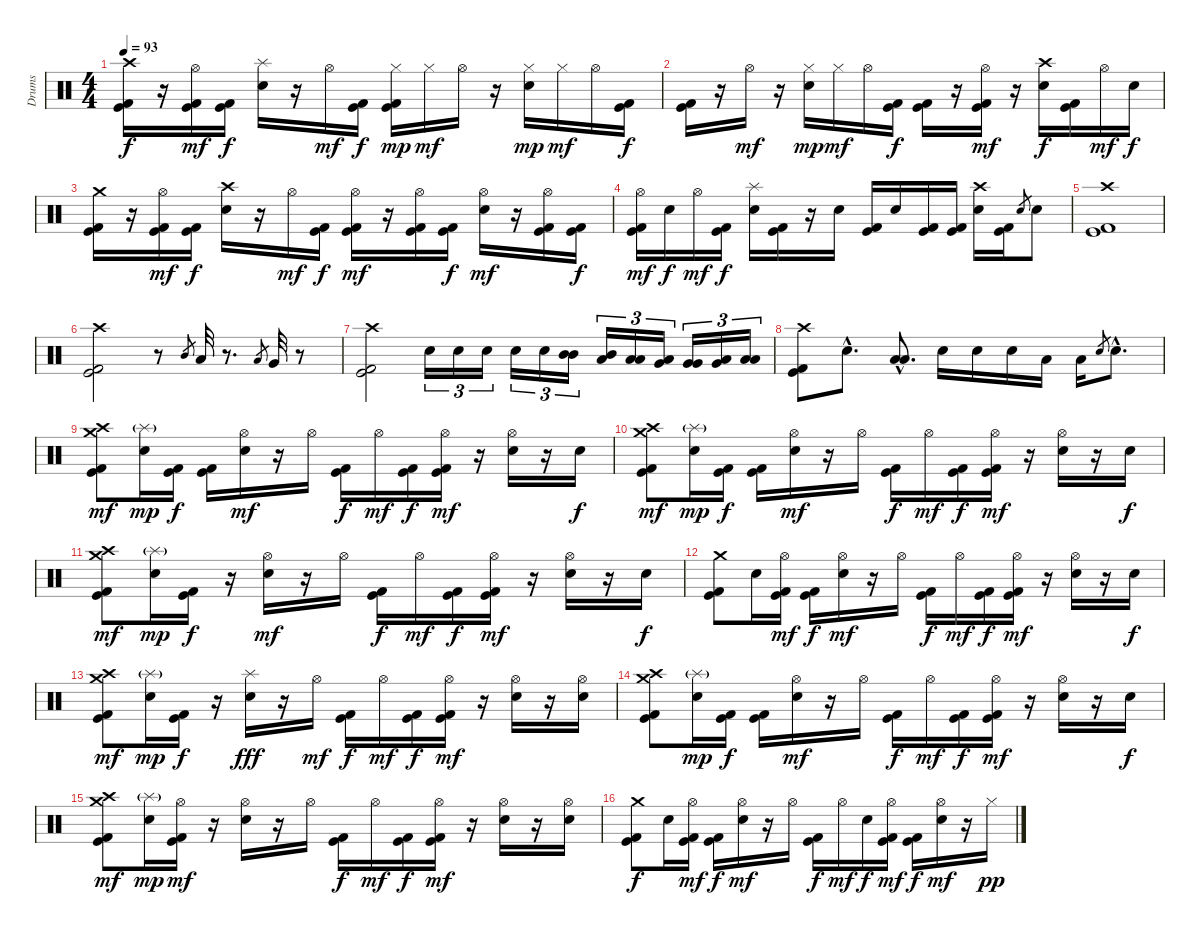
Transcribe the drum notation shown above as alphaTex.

\track ("Drums" "Drums") {instrument percussion}
\staff {score}
\articulation defaults
\ts (4 4)
\tempo 93
\clef neutral
\ks c
("Crash high (hit)" "Kick (hit)" "Kick (hit) 2").16{dy f} r.16 ("Hi-Hat (open)" "Kick (hit)" "Kick (hit) 2").16{dy mf} ("Kick (hit)" "Kick (hit) 2").16{dy f} ("Splash (hit)" "Electric Snare (hit)").16 r.16 "Hi-Hat (open)".16{dy mf} ("Kick (hit)" "Kick (hit) 2").16{dy f} ("Hi-Hat (closed)" "Kick (hit)" "Kick (hit) 2").16{dy mp} "Hi-Hat (closed)".16{dy mf} "Hi-Hat (open)".16 r.16 ("Hi-Hat (closed)" "Electric Snare (hit)").16{dy mp} "Hi-Hat (closed)".16{dy mf} "Hi-Hat (open)".16 ("Kick (hit)" "Kick (hit) 2").16{dy f} |
("Kick (hit)" "Kick (hit) 2").16 r.16 "Hi-Hat (open)".16{dy mf} r.16 ("Hi-Hat (closed)" "Electric Snare (hit)").16{dy mp} "Hi-Hat (closed)".16{dy mf} "Hi-Hat (open)".16 ("Kick (hit)" "Kick (hit) 2").16{dy f} ("Kick (hit)" "Kick (hit) 2").16 r.16 ("Hi-Hat (open)" "Kick (hit)" "Kick (hit) 2").16{dy mf} r.16 ("Crash high (hit)" "Electric Snare (hit)").16{dy f} ("Kick (hit)" "Kick (hit) 2").16 "Hi-Hat (open)".16{dy mf} "Electric Snare (hit)".16{dy f} |
("Crash medium (hit)" "Kick (hit)" "Kick (hit) 2").16 r.16 ("Hi-Hat (open)" "Kick (hit)" "Kick (hit) 2").16{dy mf} ("Kick (hit)" "Kick (hit) 2").16{dy f} ("Crash high (hit)" "Electric Snare (hit)").16 r.16 "Hi-Hat (open)".16{dy mf} ("Kick (hit)" "Kick (hit) 2").16{dy f} ("Hi-Hat (open)" "Kick (hit)" "Kick (hit) 2").16{dy mf} r.16 ("Hi-Hat (open)" "Kick (hit)" "Kick (hit) 2").16 ("Kick (hit)" "Kick (hit) 2").16{dy f} ("Hi-Hat (open)" "Electric Snare (hit)").16{dy mf} r.16 ("Hi-Hat (open)" "Kick (hit)" "Kick (hit) 2").16 ("Kick (hit)" "Kick (hit) 2").16{dy f} |
("Hi-Hat (open)" "Kick (hit)" "Kick (hit) 2").16{dy mf} "Electric Snare (hit)".16{dy f} "Hi-Hat (open)".16{dy mf} ("Kick (hit)" "Kick (hit) 2").16{dy f} ("Splash (hit)" "Electric Snare (hit)").16 ("Kick (hit)" "Kick (hit) 2").16 r.16 "Electric Snare (hit)".16 ("Kick (hit)" "Kick (hit) 2").16 "Electric Snare (hit)".16 ("Kick (hit)" "Kick (hit) 2").16 ("Kick (hit)" "Kick (hit) 2").16 ("Crash high (hit)" "Electric Snare (hit)").16 ("Kick (hit)" "Kick (hit) 2").16 "Electric Snare (hit)".8{gr} "Electric Snare (hit)".8 |
("Crash high (hit)" "Kick (hit)" "Kick (hit) 2").1 |
("Crash high (hit)" "Kick (hit)" "Kick (hit) 2").2 r.8 "Mid Tom (hit)".8{gr} "Low Tom (hit)".32 r.8{d} "Low Tom (hit)".8{gr} "Very Low Tom (hit)".32 r.8 |
("Crash high (hit)" "Kick (hit)" "Kick (hit) 2").2 "Electric Snare (hit)".16{tu (3 2)} "Electric Snare (hit)".16{tu (3 2)} "Electric Snare (hit)".16{tu (3 2)} "Electric Snare (hit)".16{tu (3 2)} "Electric Snare (hit)".16{tu (3 2)} ("Mid Tom (hit)" "Mid Tom (hit)").16{tu (3 2)} ("Mid Tom (hit)" "Low Tom (hit)").16{tu (3 2)} ("Low Tom (hit)" "Low Tom (hit)").16{tu (3 2)} ("Low Tom (hit)" "Very Low Tom (hit)").16{tu (3 2)} ("Very Low Tom (hit)" "Very Low Tom (hit)").16{tu (3 2)} ("Very Low Tom (hit)" "Low Floor Tom (hit)").16{tu (3 2)} ("Low Floor Tom (hit)" "Low Floor Tom (hit)").16{tu (3 2)} |
("Crash high (hit)" "Kick (hit)" "Kick (hit) 2").8 "Electric Snare (hit)"{hac}.8{d} ("Low Tom (hit)"{hac} "Low Tom (hit)"{hac}).8{d} "Electric Snare (hit)".16 "Electric Snare (hit)".16 "Electric Snare (hit)".16 "Low Tom (hit)".16 "Low Tom (hit)".16 "Electric Snare (hit)".8{gr} "Electric Snare (hit)"{hac}.8{d} |
("Crash medium (hit)" "Crash high (hit)" "Kick (hit)" "Kick (hit) 2").8{dy mf} ("Splash (hit)"{g} "Electric Snare (hit)").16{dy mp} ("Kick (hit)" "Kick (hit) 2").16{dy f} ("Kick (hit)" "Kick (hit) 2").16 ("Hi-Hat (open)" "Electric Snare (hit)").16{dy mf} r.16 "Hi-Hat (open)".16 ("Kick (hit)" "Kick (hit) 2").16{dy f} "Hi-Hat (open)".16{dy mf} ("Kick (hit)" "Kick (hit) 2").16{dy f} ("Hi-Hat (open)" "Kick (hit)" "Kick (hit) 2").16{dy mf} r.16 ("Hi-Hat (open)" "Electric Snare (hit)").16 r.16 "Electric Snare (hit)".16{dy f} |
("Crash medium (hit)" "Crash high (hit)" "Kick (hit)" "Kick (hit) 2").8{dy mf} ("Splash (hit)"{g} "Electric Snare (hit)").16{dy mp} ("Kick (hit)" "Kick (hit) 2").16{dy f} ("Kick (hit)" "Kick (hit) 2").16 ("Hi-Hat (open)" "Electric Snare (hit)").16{dy mf} r.16 "Hi-Hat (open)".16 ("Kick (hit)" "Kick (hit) 2").16{dy f} "Hi-Hat (open)".16{dy mf} ("Kick (hit)" "Kick (hit) 2").16{dy f} ("Hi-Hat (open)" "Kick (hit)" "Kick (hit) 2").16{dy mf} r.16 ("Hi-Hat (open)" "Electric Snare (hit)").16 r.16 "Electric Snare (hit)".16{dy f} |
("Crash medium (hit)" "Crash high (hit)" "Kick (hit)" "Kick (hit) 2").8{dy mf} ("Splash (hit)"{g} "Electric Snare (hit)").16{dy mp} ("Kick (hit)" "Kick (hit) 2").16{dy f} r.16 ("Hi-Hat (open)" "Electric Snare (hit)").16{dy mf} r.16 "Hi-Hat (open)".16 ("Kick (hit)" "Kick (hit) 2").16{dy f} "Hi-Hat (open)".16{dy mf} ("Kick (hit)" "Kick (hit) 2").16{dy f} ("Hi-Hat (open)" "Kick (hit)" "Kick (hit) 2").16{dy mf} r.16 ("Hi-Hat (open)" "Electric Snare (hit)").16 r.16 "Electric Snare (hit)".16{dy f} |
("Crash medium (hit)" "Kick (hit)" "Kick (hit) 2").8 "Electric Snare (hit)".16 ("Hi-Hat (open)" "Kick (hit)" "Kick (hit) 2").16{dy mf} ("Kick (hit)" "Kick (hit) 2").16{dy f} ("Hi-Hat (open)" "Electric Snare (hit)").16{dy mf} r.16 "Hi-Hat (open)".16 ("Kick (hit)" "Kick (hit) 2").16{dy f} "Hi-Hat (open)".16{dy mf} ("Kick (hit)" "Kick (hit) 2").16{dy f} ("Hi-Hat (open)" "Kick (hit)" "Kick (hit) 2").16{dy mf} r.16 ("Hi-Hat (open)" "Electric Snare (hit)").16 r.16 "Electric Snare (hit)".16{dy f} |
("Crash medium (hit)" "Crash high (hit)" "Kick (hit)" "Kick (hit) 2").8{dy mf} ("Splash (hit)"{g} "Electric Snare (hit)").16{dy mp} ("Kick (hit)" "Kick (hit) 2").16{dy f} r.16 ("Splash (hit)" "Electric Snare (hit)").16{dy fff} r.16 "Hi-Hat (open)".16{dy mf} ("Kick (hit)" "Kick (hit) 2").16{dy f} "Hi-Hat (open)".16{dy mf} ("Kick (hit)" "Kick (hit) 2").16{dy f} ("Hi-Hat (open)" "Kick (hit)" "Kick (hit) 2").16{dy mf} r.16 ("Hi-Hat (open)" "Electric Snare (hit)").16 r.16 ("Hi-Hat (open)" "Electric Snare (hit)").16 |
("Crash medium (hit)" "Crash high (hit)" "Kick (hit)" "Kick (hit) 2").8 ("Splash (hit)"{g} "Electric Snare (hit)").16{dy mp} ("Kick (hit)" "Kick (hit) 2").16{dy f} ("Kick (hit)" "Kick (hit) 2").16 ("Hi-Hat (open)" "Electric Snare (hit)").16{dy mf} r.16 "Hi-Hat (open)".16 ("Kick (hit)" "Kick (hit) 2").16{dy f} "Hi-Hat (open)".16{dy mf} ("Kick (hit)" "Kick (hit) 2").16{dy f} ("Hi-Hat (open)" "Kick (hit)" "Kick (hit) 2").16{dy mf} r.16 ("Hi-Hat (open)" "Electric Snare (hit)").16 r.16 "Electric Snare (hit)".16{dy f} |
("Crash medium (hit)" "Crash high (hit)" "Kick (hit)" "Kick (hit) 2").8{dy mf} ("Splash (hit)"{g} "Electric Snare (hit)").16{dy mp} ("Hi-Hat (open)" "Kick (hit)" "Kick (hit) 2").16{dy mf} r.16 ("Hi-Hat (open)" "Electric Snare (hit)").16 r.16 "Hi-Hat (open)".16 ("Kick (hit)" "Kick (hit) 2").16{dy f} "Hi-Hat (open)".16{dy mf} ("Kick (hit)" "Kick (hit) 2").16{dy f} ("Hi-Hat (open)" "Kick (hit)" "Kick (hit) 2").16{dy mf} r.16 ("Hi-Hat (open)" "Electric Snare (hit)").16 r.16 ("Hi-Hat (open)" "Electric Snare (hit)").16 |
("Crash medium (hit)" "Kick (hit)" "Kick (hit) 2").8{dy f} "Electric Snare (hit)".16 ("Hi-Hat (open)" "Kick (hit)" "Kick (hit) 2").16{dy mf} ("Kick (hit)" "Kick (hit) 2").16{dy f} ("Hi-Hat (open)" "Electric Snare (hit)").16{dy mf} r.16 "Hi-Hat (open)".16 ("Kick (hit)" "Kick (hit) 2").16{dy f} "Hi-Hat (open)".16{dy mf} "Electric Snare (hit)".16{dy f} ("Hi-Hat (open)" "Kick (hit)" "Kick (hit) 2").16{dy mf} ("Kick (hit)" "Kick (hit) 2").16{dy f} ("Hi-Hat (open)" "Electric Snare (hit)").16{dy mf} r.16 "Hi-Hat (closed)".16{dy pp}
